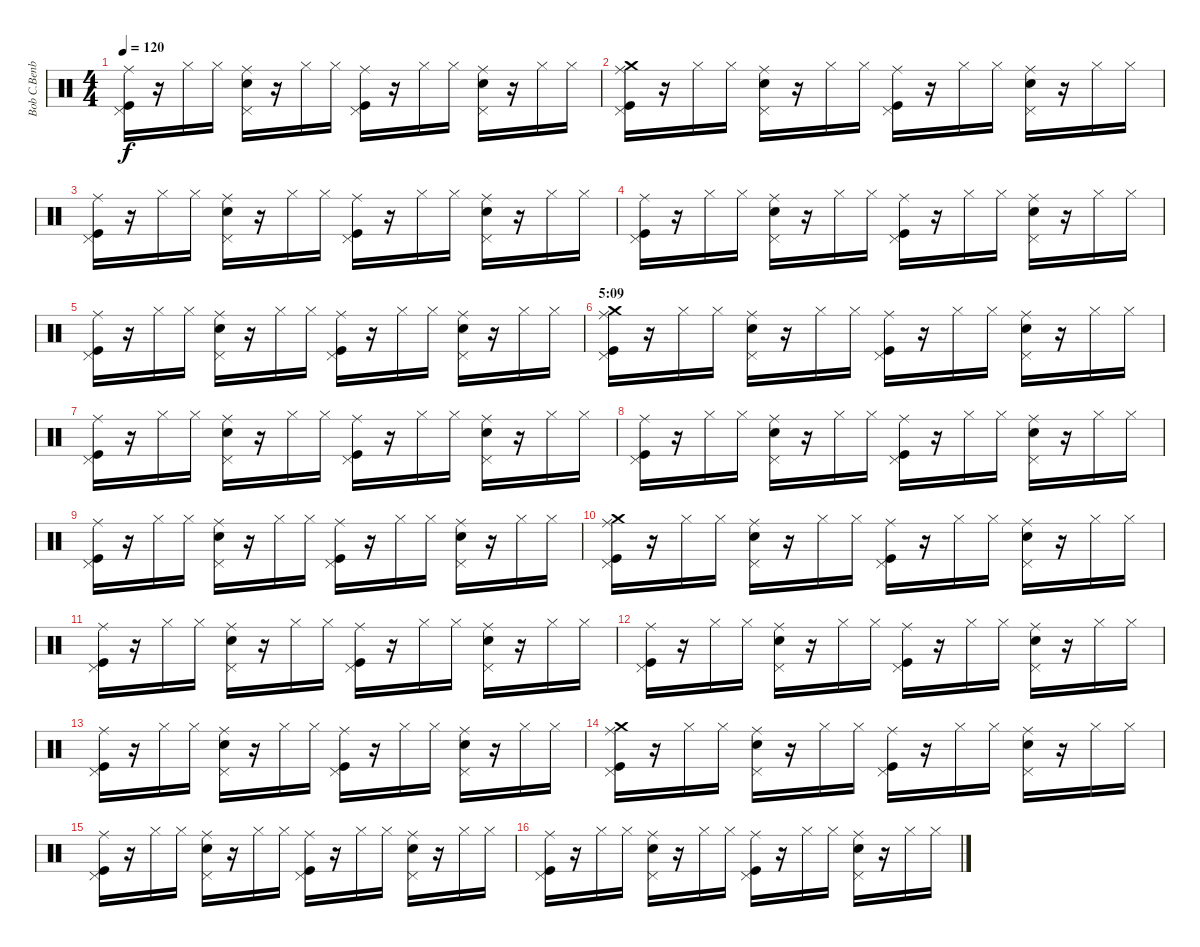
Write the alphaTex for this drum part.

\track ("Bob C.Benberg (drums)" "Bob C.Benb") {instrument percussion}
\staff {score}
\articulation defaults
\ts (4 4)
\tempo 120
\clef neutral
\ks c
("Pedal Hi-Hat (hit)" "Kick (hit)" "Ride (middle)").16{dy f} r.16 "Hi-Hat (closed)".16 "Hi-Hat (closed)".16 ("Pedal Hi-Hat (hit)" "Snare (hit) 2" "Ride (middle)").16 r.16 "Hi-Hat (closed)".16 "Hi-Hat (closed)".16 ("Pedal Hi-Hat (hit)" "Kick (hit)" "Ride (middle)").16 r.16 "Hi-Hat (closed)".16 "Hi-Hat (closed)".16 ("Pedal Hi-Hat (hit)" "Snare (hit) 2" "Ride (middle)").16 r.16 "Hi-Hat (closed)".16 "Hi-Hat (closed)".16 |
("Pedal Hi-Hat (hit)" "Kick (hit)" "Ride (middle)" "Crash medium (hit)").16 r.16 "Hi-Hat (closed)".16 "Hi-Hat (closed)".16 ("Pedal Hi-Hat (hit)" "Snare (hit) 2" "Ride (middle)").16 r.16 "Hi-Hat (closed)".16 "Hi-Hat (closed)".16 ("Pedal Hi-Hat (hit)" "Kick (hit)" "Ride (middle)").16 r.16 "Hi-Hat (closed)".16 "Hi-Hat (closed)".16 ("Pedal Hi-Hat (hit)" "Snare (hit) 2" "Ride (middle)").16 r.16 "Hi-Hat (closed)".16 "Hi-Hat (closed)".16 |
("Pedal Hi-Hat (hit)" "Kick (hit)" "Ride (middle)").16 r.16 "Hi-Hat (closed)".16 "Hi-Hat (closed)".16 ("Pedal Hi-Hat (hit)" "Snare (hit) 2" "Ride (middle)").16 r.16 "Hi-Hat (closed)".16 "Hi-Hat (closed)".16 ("Pedal Hi-Hat (hit)" "Kick (hit)" "Ride (middle)").16 r.16 "Hi-Hat (closed)".16 "Hi-Hat (closed)".16 ("Pedal Hi-Hat (hit)" "Snare (hit) 2" "Ride (middle)").16 r.16 "Hi-Hat (closed)".16 "Hi-Hat (closed)".16 |
("Pedal Hi-Hat (hit)" "Kick (hit)" "Ride (middle)").16 r.16 "Hi-Hat (closed)".16 "Hi-Hat (closed)".16 ("Pedal Hi-Hat (hit)" "Snare (hit) 2" "Ride (middle)").16 r.16 "Hi-Hat (closed)".16 "Hi-Hat (closed)".16 ("Pedal Hi-Hat (hit)" "Kick (hit)" "Ride (middle)").16 r.16 "Hi-Hat (closed)".16 "Hi-Hat (closed)".16 ("Pedal Hi-Hat (hit)" "Snare (hit) 2" "Ride (middle)").16 r.16 "Hi-Hat (closed)".16 "Hi-Hat (closed)".16 |
("Pedal Hi-Hat (hit)" "Kick (hit)" "Ride (middle)").16 r.16 "Hi-Hat (closed)".16 "Hi-Hat (closed)".16 ("Pedal Hi-Hat (hit)" "Snare (hit) 2" "Ride (middle)").16 r.16 "Hi-Hat (closed)".16 "Hi-Hat (closed)".16 ("Pedal Hi-Hat (hit)" "Kick (hit)" "Ride (middle)").16 r.16 "Hi-Hat (closed)".16 "Hi-Hat (closed)".16 ("Pedal Hi-Hat (hit)" "Snare (hit) 2" "Ride (middle)").16 r.16 "Hi-Hat (closed)".16 "Hi-Hat (closed)".16 |
\section ("" "5:09")
("Pedal Hi-Hat (hit)" "Kick (hit)" "Ride (middle)" "Crash medium (hit)").16 r.16 "Hi-Hat (closed)".16 "Hi-Hat (closed)".16 ("Pedal Hi-Hat (hit)" "Snare (hit) 2" "Ride (middle)").16 r.16 "Hi-Hat (closed)".16 "Hi-Hat (closed)".16 ("Pedal Hi-Hat (hit)" "Kick (hit)" "Ride (middle)").16 r.16 "Hi-Hat (closed)".16 "Hi-Hat (closed)".16 ("Pedal Hi-Hat (hit)" "Snare (hit) 2" "Ride (middle)").16 r.16 "Hi-Hat (closed)".16 "Hi-Hat (closed)".16 |
("Pedal Hi-Hat (hit)" "Kick (hit)" "Ride (middle)").16 r.16 "Hi-Hat (closed)".16 "Hi-Hat (closed)".16 ("Pedal Hi-Hat (hit)" "Snare (hit) 2" "Ride (middle)").16 r.16 "Hi-Hat (closed)".16 "Hi-Hat (closed)".16 ("Pedal Hi-Hat (hit)" "Kick (hit)" "Ride (middle)").16 r.16 "Hi-Hat (closed)".16 "Hi-Hat (closed)".16 ("Pedal Hi-Hat (hit)" "Snare (hit) 2" "Ride (middle)").16 r.16 "Hi-Hat (closed)".16 "Hi-Hat (closed)".16 |
("Pedal Hi-Hat (hit)" "Kick (hit)" "Ride (middle)").16 r.16 "Hi-Hat (closed)".16 "Hi-Hat (closed)".16 ("Pedal Hi-Hat (hit)" "Snare (hit) 2" "Ride (middle)").16 r.16 "Hi-Hat (closed)".16 "Hi-Hat (closed)".16 ("Pedal Hi-Hat (hit)" "Kick (hit)" "Ride (middle)").16 r.16 "Hi-Hat (closed)".16 "Hi-Hat (closed)".16 ("Pedal Hi-Hat (hit)" "Snare (hit) 2" "Ride (middle)").16 r.16 "Hi-Hat (closed)".16 "Hi-Hat (closed)".16 |
("Pedal Hi-Hat (hit)" "Kick (hit)" "Ride (middle)").16 r.16 "Hi-Hat (closed)".16 "Hi-Hat (closed)".16 ("Pedal Hi-Hat (hit)" "Snare (hit) 2" "Ride (middle)").16 r.16 "Hi-Hat (closed)".16 "Hi-Hat (closed)".16 ("Pedal Hi-Hat (hit)" "Kick (hit)" "Ride (middle)").16 r.16 "Hi-Hat (closed)".16 "Hi-Hat (closed)".16 ("Pedal Hi-Hat (hit)" "Snare (hit) 2" "Ride (middle)").16 r.16 "Hi-Hat (closed)".16 "Hi-Hat (closed)".16 |
("Pedal Hi-Hat (hit)" "Kick (hit)" "Ride (middle)" "Crash medium (hit)").16 r.16 "Hi-Hat (closed)".16 "Hi-Hat (closed)".16 ("Pedal Hi-Hat (hit)" "Snare (hit) 2" "Ride (middle)").16 r.16 "Hi-Hat (closed)".16 "Hi-Hat (closed)".16 ("Pedal Hi-Hat (hit)" "Kick (hit)" "Ride (middle)").16 r.16 "Hi-Hat (closed)".16 "Hi-Hat (closed)".16 ("Pedal Hi-Hat (hit)" "Snare (hit) 2" "Ride (middle)").16 r.16 "Hi-Hat (closed)".16 "Hi-Hat (closed)".16 |
("Pedal Hi-Hat (hit)" "Kick (hit)" "Ride (middle)").16 r.16 "Hi-Hat (closed)".16 "Hi-Hat (closed)".16 ("Pedal Hi-Hat (hit)" "Snare (hit) 2" "Ride (middle)").16 r.16 "Hi-Hat (closed)".16 "Hi-Hat (closed)".16 ("Pedal Hi-Hat (hit)" "Kick (hit)" "Ride (middle)").16 r.16 "Hi-Hat (closed)".16 "Hi-Hat (closed)".16 ("Pedal Hi-Hat (hit)" "Snare (hit) 2" "Ride (middle)").16 r.16 "Hi-Hat (closed)".16 "Hi-Hat (closed)".16 |
("Pedal Hi-Hat (hit)" "Kick (hit)" "Ride (middle)").16 r.16 "Hi-Hat (closed)".16 "Hi-Hat (closed)".16 ("Pedal Hi-Hat (hit)" "Snare (hit) 2" "Ride (middle)").16 r.16 "Hi-Hat (closed)".16 "Hi-Hat (closed)".16 ("Pedal Hi-Hat (hit)" "Kick (hit)" "Ride (middle)").16 r.16 "Hi-Hat (closed)".16 "Hi-Hat (closed)".16 ("Pedal Hi-Hat (hit)" "Snare (hit) 2" "Ride (middle)").16 r.16 "Hi-Hat (closed)".16 "Hi-Hat (closed)".16 |
("Pedal Hi-Hat (hit)" "Kick (hit)" "Ride (middle)").16 r.16 "Hi-Hat (closed)".16 "Hi-Hat (closed)".16 ("Pedal Hi-Hat (hit)" "Snare (hit) 2" "Ride (middle)").16 r.16 "Hi-Hat (closed)".16 "Hi-Hat (closed)".16 ("Pedal Hi-Hat (hit)" "Kick (hit)" "Ride (middle)").16 r.16 "Hi-Hat (closed)".16 "Hi-Hat (closed)".16 ("Pedal Hi-Hat (hit)" "Snare (hit) 2" "Ride (middle)").16 r.16 "Hi-Hat (closed)".16 "Hi-Hat (closed)".16 |
("Pedal Hi-Hat (hit)" "Kick (hit)" "Ride (middle)" "Crash medium (hit)").16{volume 10} r.16 "Hi-Hat (closed)".16 "Hi-Hat (closed)".16 ("Pedal Hi-Hat (hit)" "Snare (hit) 2" "Ride (middle)").16 r.16 "Hi-Hat (closed)".16 "Hi-Hat (closed)".16 ("Pedal Hi-Hat (hit)" "Kick (hit)" "Ride (middle)").16 r.16 "Hi-Hat (closed)".16 "Hi-Hat (closed)".16 ("Pedal Hi-Hat (hit)" "Snare (hit) 2" "Ride (middle)").16 r.16 "Hi-Hat (closed)".16 "Hi-Hat (closed)".16 |
("Pedal Hi-Hat (hit)" "Kick (hit)" "Ride (middle)").16 r.16 "Hi-Hat (closed)".16 "Hi-Hat (closed)".16 ("Pedal Hi-Hat (hit)" "Snare (hit) 2" "Ride (middle)").16 r.16 "Hi-Hat (closed)".16 "Hi-Hat (closed)".16 ("Pedal Hi-Hat (hit)" "Kick (hit)" "Ride (middle)").16 r.16 "Hi-Hat (closed)".16 "Hi-Hat (closed)".16 ("Pedal Hi-Hat (hit)" "Snare (hit) 2" "Ride (middle)").16 r.16 "Hi-Hat (closed)".16 "Hi-Hat (closed)".16 |
("Pedal Hi-Hat (hit)" "Kick (hit)" "Ride (middle)").16{volume 8} r.16 "Hi-Hat (closed)".16 "Hi-Hat (closed)".16 ("Pedal Hi-Hat (hit)" "Snare (hit) 2" "Ride (middle)").16 r.16 "Hi-Hat (closed)".16 "Hi-Hat (closed)".16 ("Pedal Hi-Hat (hit)" "Kick (hit)" "Ride (middle)").16 r.16 "Hi-Hat (closed)".16 "Hi-Hat (closed)".16 ("Pedal Hi-Hat (hit)" "Snare (hit) 2" "Ride (middle)").16 r.16 "Hi-Hat (closed)".16 "Hi-Hat (closed)".16
